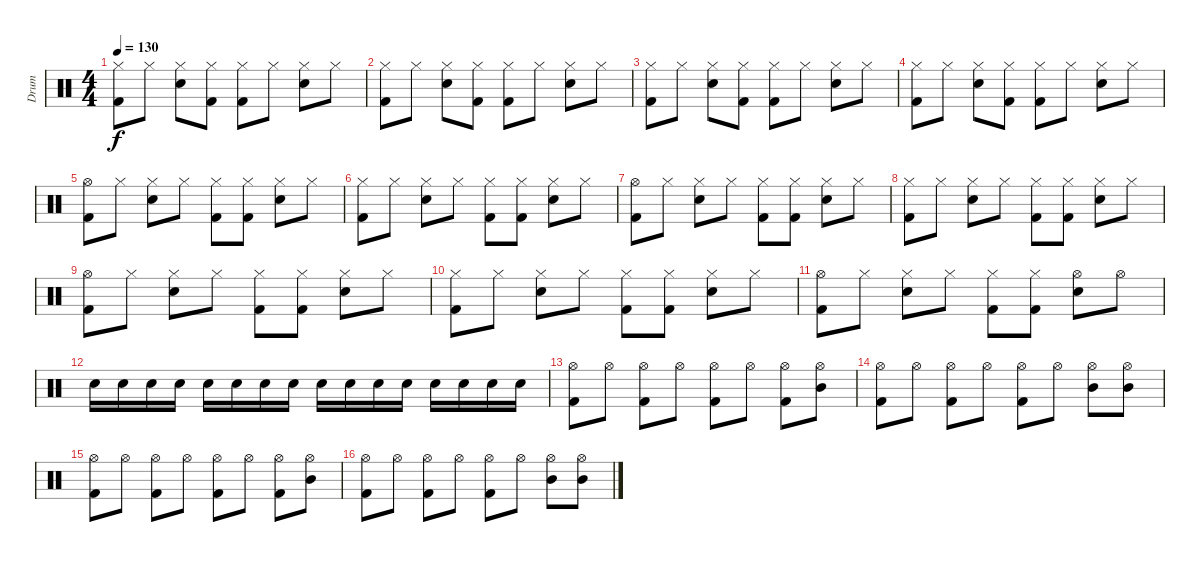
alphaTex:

\track ("Drum" "Drum") {instrument percussion}
\staff {score}
\articulation defaults
\ts (4 4)
\tempo 130
\clef neutral
\ks c
("Hi-Hat (closed)" "Kick (hit) 2").8{dy f} "Hi-Hat (closed)".8 ("Hi-Hat (closed)" "Electric Snare (hit)").8 ("Hi-Hat (closed)" "Kick (hit) 2").8 ("Hi-Hat (closed)" "Kick (hit) 2").8 "Hi-Hat (closed)".8 ("Hi-Hat (closed)" "Electric Snare (hit)").8 "Hi-Hat (closed)".8 |
("Hi-Hat (closed)" "Kick (hit) 2").8 "Hi-Hat (closed)".8 ("Hi-Hat (closed)" "Electric Snare (hit)").8 ("Hi-Hat (closed)" "Kick (hit) 2").8 ("Hi-Hat (closed)" "Kick (hit) 2").8 "Hi-Hat (closed)".8 ("Hi-Hat (closed)" "Electric Snare (hit)").8 "Hi-Hat (closed)".8 |
("Hi-Hat (closed)" "Kick (hit) 2").8 "Hi-Hat (closed)".8 ("Hi-Hat (closed)" "Electric Snare (hit)").8 ("Hi-Hat (closed)" "Kick (hit) 2").8 ("Hi-Hat (closed)" "Kick (hit) 2").8 "Hi-Hat (closed)".8 ("Hi-Hat (closed)" "Electric Snare (hit)").8 "Hi-Hat (closed)".8 |
("Hi-Hat (closed)" "Kick (hit) 2").8 "Hi-Hat (closed)".8 ("Hi-Hat (closed)" "Electric Snare (hit)").8 ("Hi-Hat (closed)" "Kick (hit) 2").8 ("Hi-Hat (closed)" "Kick (hit) 2").8 "Hi-Hat (closed)".8 ("Hi-Hat (closed)" "Electric Snare (hit)").8 "Hi-Hat (closed)".8 |
("Hi-Hat (open)" "Kick (hit) 2").8 "Hi-Hat (closed)".8 ("Hi-Hat (closed)" "Electric Snare (hit)").8 "Hi-Hat (closed)".8 ("Hi-Hat (closed)" "Kick (hit) 2").8 ("Hi-Hat (closed)" "Kick (hit) 2").8 ("Hi-Hat (closed)" "Electric Snare (hit)").8 "Hi-Hat (closed)".8 |
("Hi-Hat (closed)" "Kick (hit) 2").8 "Hi-Hat (closed)".8 ("Hi-Hat (closed)" "Electric Snare (hit)").8 "Hi-Hat (closed)".8 ("Hi-Hat (closed)" "Kick (hit) 2").8 ("Hi-Hat (closed)" "Kick (hit) 2").8 ("Hi-Hat (closed)" "Electric Snare (hit)").8 "Hi-Hat (closed)".8 |
("Hi-Hat (open)" "Kick (hit) 2").8 "Hi-Hat (closed)".8 ("Hi-Hat (closed)" "Electric Snare (hit)").8 "Hi-Hat (closed)".8 ("Hi-Hat (closed)" "Kick (hit) 2").8 ("Hi-Hat (closed)" "Kick (hit) 2").8 ("Hi-Hat (closed)" "Electric Snare (hit)").8 "Hi-Hat (closed)".8 |
("Hi-Hat (closed)" "Kick (hit) 2").8 "Hi-Hat (closed)".8 ("Hi-Hat (closed)" "Electric Snare (hit)").8 "Hi-Hat (closed)".8 ("Hi-Hat (closed)" "Kick (hit) 2").8 ("Hi-Hat (closed)" "Kick (hit) 2").8 ("Hi-Hat (closed)" "Electric Snare (hit)").8 "Hi-Hat (closed)".8 |
("Hi-Hat (open)" "Kick (hit) 2").8 "Hi-Hat (closed)".8 ("Hi-Hat (closed)" "Electric Snare (hit)").8 "Hi-Hat (closed)".8 ("Hi-Hat (closed)" "Kick (hit) 2").8 ("Hi-Hat (closed)" "Kick (hit) 2").8 ("Hi-Hat (closed)" "Electric Snare (hit)").8 "Hi-Hat (closed)".8 |
("Hi-Hat (closed)" "Kick (hit) 2").8 "Hi-Hat (closed)".8 ("Hi-Hat (closed)" "Electric Snare (hit)").8 "Hi-Hat (closed)".8 ("Hi-Hat (closed)" "Kick (hit) 2").8 ("Hi-Hat (closed)" "Kick (hit) 2").8 ("Hi-Hat (closed)" "Electric Snare (hit)").8 "Hi-Hat (closed)".8 |
("Hi-Hat (open)" "Kick (hit) 2").8 "Hi-Hat (closed)".8 ("Hi-Hat (closed)" "Electric Snare (hit)").8 "Hi-Hat (closed)".8 ("Hi-Hat (closed)" "Kick (hit) 2").8 ("Hi-Hat (closed)" "Kick (hit) 2").8 ("Hi-Hat (open)" "Electric Snare (hit)").8 "Hi-Hat (open)".8 |
"Electric Snare (hit)".16 "Electric Snare (hit)".16 "Electric Snare (hit)".16 "Electric Snare (hit)".16 "Electric Snare (hit)".16 "Electric Snare (hit)".16 "Electric Snare (hit)".16 "Electric Snare (hit)".16 "Electric Snare (hit)".16 "Electric Snare (hit)".16 "Electric Snare (hit)".16 "Electric Snare (hit)".16 "Electric Snare (hit)".16 "Electric Snare (hit)".16 "Electric Snare (hit)".16 "Electric Snare (hit)".16 |
("Hi-Hat (open)" "Kick (hit) 2").8 "Hi-Hat (open)".8 ("Hi-Hat (open)" "Kick (hit) 2").8 "Hi-Hat (open)".8 ("Hi-Hat (open)" "Kick (hit) 2").8 "Hi-Hat (open)".8 ("Hi-Hat (open)" "Kick (hit) 2").8 ("Hi-Hat (open)" "Mid Tom (hit)").8 |
("Hi-Hat (open)" "Kick (hit) 2").8 "Hi-Hat (open)".8 ("Hi-Hat (open)" "Kick (hit) 2").8 "Hi-Hat (open)".8 ("Hi-Hat (open)" "Kick (hit) 2").8 "Hi-Hat (open)".8 ("Hi-Hat (open)" "Mid Tom (hit)").8 ("Hi-Hat (open)" "Mid Tom (hit)").8 |
("Hi-Hat (open)" "Kick (hit) 2").8 "Hi-Hat (open)".8 ("Hi-Hat (open)" "Kick (hit) 2").8 "Hi-Hat (open)".8 ("Hi-Hat (open)" "Kick (hit) 2").8 "Hi-Hat (open)".8 ("Hi-Hat (open)" "Kick (hit) 2").8 ("Hi-Hat (open)" "Mid Tom (hit)").8 |
("Hi-Hat (open)" "Kick (hit) 2").8 "Hi-Hat (open)".8 ("Hi-Hat (open)" "Kick (hit) 2").8 "Hi-Hat (open)".8 ("Hi-Hat (open)" "Kick (hit) 2").8 "Hi-Hat (open)".8 ("Hi-Hat (open)" "Mid Tom (hit)").8 ("Hi-Hat (open)" "Mid Tom (hit)").8
